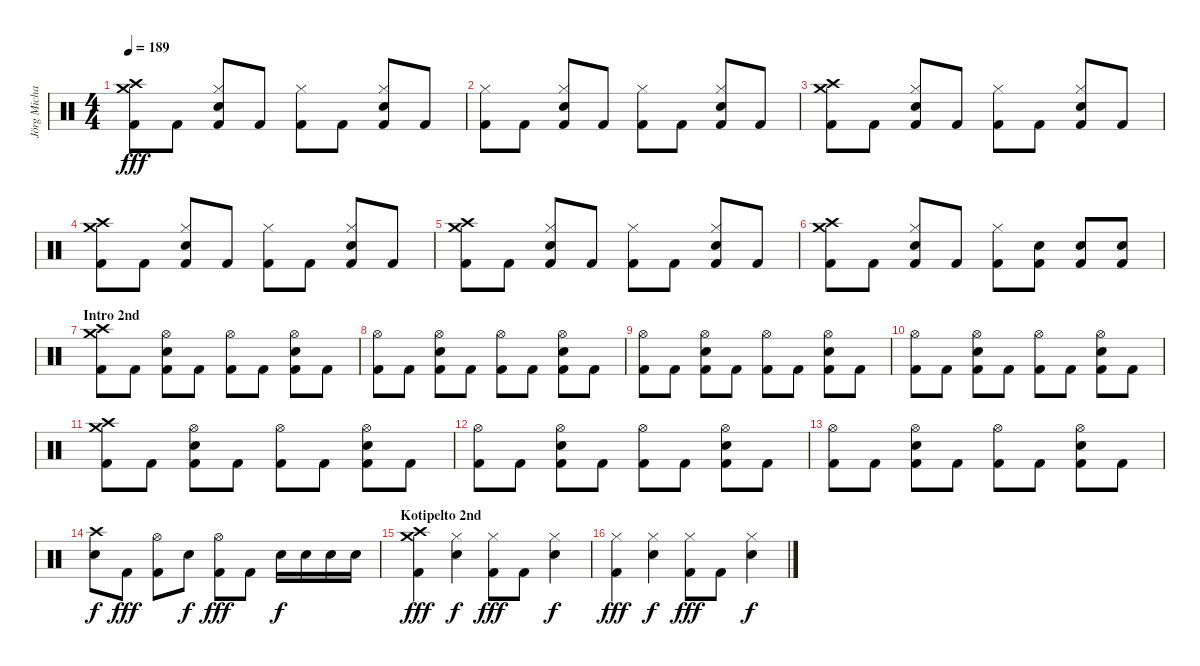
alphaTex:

\track ("Jörg Michael" "Jörg Micha") {instrument percussion}
\staff {score}
\articulation defaults
\ts (4 4)
\tempo 189
\clef neutral
\ks c
("Crash high (hit)" "Crash medium (hit)" "Kick (hit) 2").8{dy fff} "Kick (hit) 2".8 ("Hi-Hat (closed)" "Electric Snare (hit)" "Kick (hit) 2").8 "Kick (hit) 2".8 ("Hi-Hat (closed)" "Kick (hit) 2").8 "Kick (hit) 2".8 ("Hi-Hat (closed)" "Electric Snare (hit)" "Kick (hit) 2").8 "Kick (hit) 2".8 |
("Hi-Hat (closed)" "Kick (hit) 2").8 "Kick (hit) 2".8 ("Hi-Hat (closed)" "Electric Snare (hit)" "Kick (hit) 2").8 "Kick (hit) 2".8 ("Hi-Hat (closed)" "Kick (hit) 2").8 "Kick (hit) 2".8 ("Hi-Hat (closed)" "Electric Snare (hit)" "Kick (hit) 2").8 "Kick (hit) 2".8 |
("Crash high (hit)" "Crash medium (hit)" "Kick (hit) 2").8 "Kick (hit) 2".8 ("Hi-Hat (closed)" "Electric Snare (hit)" "Kick (hit) 2").8 "Kick (hit) 2".8 ("Hi-Hat (closed)" "Kick (hit) 2").8 "Kick (hit) 2".8 ("Hi-Hat (closed)" "Electric Snare (hit)" "Kick (hit) 2").8 "Kick (hit) 2".8 |
("Crash high (hit)" "Crash medium (hit)" "Kick (hit) 2").8 "Kick (hit) 2".8 ("Hi-Hat (closed)" "Electric Snare (hit)" "Kick (hit) 2").8 "Kick (hit) 2".8 ("Hi-Hat (closed)" "Kick (hit) 2").8 "Kick (hit) 2".8 ("Hi-Hat (closed)" "Electric Snare (hit)" "Kick (hit) 2").8 "Kick (hit) 2".8 |
("Crash high (hit)" "Crash medium (hit)" "Kick (hit) 2").8 "Kick (hit) 2".8 ("Hi-Hat (closed)" "Electric Snare (hit)" "Kick (hit) 2").8 "Kick (hit) 2".8 ("Hi-Hat (closed)" "Kick (hit) 2").8 "Kick (hit) 2".8 ("Hi-Hat (closed)" "Electric Snare (hit)" "Kick (hit) 2").8 "Kick (hit) 2".8 |
("Crash high (hit)" "Crash medium (hit)" "Kick (hit) 2").8 "Kick (hit) 2".8 ("Hi-Hat (closed)" "Electric Snare (hit)" "Kick (hit) 2").8 "Kick (hit) 2".8 ("Hi-Hat (closed)" "Kick (hit) 2").8 ("Electric Snare (hit)" "Kick (hit) 2").8 ("Electric Snare (hit)" "Kick (hit) 2").8 ("Electric Snare (hit)" "Kick (hit) 2").8 |
\section ("" "Intro 2nd")
("Crash high (hit)" "Crash medium (hit)" "Kick (hit) 2").8 "Kick (hit) 2".8 ("Hi-Hat (open)" "Electric Snare (hit)" "Kick (hit) 2").8 "Kick (hit) 2".8 ("Hi-Hat (open)" "Kick (hit) 2").8 "Kick (hit) 2".8 ("Hi-Hat (open)" "Electric Snare (hit)" "Kick (hit) 2").8 "Kick (hit) 2".8 |
("Hi-Hat (open)" "Kick (hit) 2").8 "Kick (hit) 2".8 ("Hi-Hat (open)" "Electric Snare (hit)" "Kick (hit) 2").8 "Kick (hit) 2".8 ("Hi-Hat (open)" "Kick (hit) 2").8 "Kick (hit) 2".8 ("Hi-Hat (open)" "Electric Snare (hit)" "Kick (hit) 2").8 "Kick (hit) 2".8 |
("Hi-Hat (open)" "Kick (hit) 2").8 "Kick (hit) 2".8 ("Hi-Hat (open)" "Electric Snare (hit)" "Kick (hit) 2").8 "Kick (hit) 2".8 ("Hi-Hat (open)" "Kick (hit) 2").8 "Kick (hit) 2".8 ("Hi-Hat (open)" "Electric Snare (hit)" "Kick (hit) 2").8 "Kick (hit) 2".8 |
("Hi-Hat (open)" "Kick (hit) 2").8 "Kick (hit) 2".8 ("Hi-Hat (open)" "Electric Snare (hit)" "Kick (hit) 2").8 "Kick (hit) 2".8 ("Hi-Hat (open)" "Kick (hit) 2").8 "Kick (hit) 2".8 ("Hi-Hat (open)" "Electric Snare (hit)" "Kick (hit) 2").8 "Kick (hit) 2".8 |
("Crash high (hit)" "Crash medium (hit)" "Kick (hit) 2").8 "Kick (hit) 2".8 ("Hi-Hat (open)" "Electric Snare (hit)" "Kick (hit) 2").8 "Kick (hit) 2".8 ("Hi-Hat (open)" "Kick (hit) 2").8 "Kick (hit) 2".8 ("Hi-Hat (open)" "Electric Snare (hit)" "Kick (hit) 2").8 "Kick (hit) 2".8 |
("Hi-Hat (open)" "Kick (hit) 2").8 "Kick (hit) 2".8 ("Hi-Hat (open)" "Electric Snare (hit)" "Kick (hit) 2").8 "Kick (hit) 2".8 ("Hi-Hat (open)" "Kick (hit) 2").8 "Kick (hit) 2".8 ("Hi-Hat (open)" "Electric Snare (hit)" "Kick (hit) 2").8 "Kick (hit) 2".8 |
("Hi-Hat (open)" "Kick (hit) 2").8 "Kick (hit) 2".8 ("Hi-Hat (open)" "Electric Snare (hit)" "Kick (hit) 2").8 "Kick (hit) 2".8 ("Hi-Hat (open)" "Kick (hit) 2").8 "Kick (hit) 2".8 ("Hi-Hat (open)" "Electric Snare (hit)" "Kick (hit) 2").8 "Kick (hit) 2".8 |
("Crash high (hit)" "Electric Snare (hit)").8{dy f} "Kick (hit) 2".8{dy fff} ("Hi-Hat (open)" "Kick (hit) 2").8 "Electric Snare (hit)".8{dy f} ("Hi-Hat (open)" "Kick (hit) 2").8{dy fff} "Kick (hit) 2".8 "Electric Snare (hit)".16{dy f} "Electric Snare (hit)".16 "Electric Snare (hit)".16 "Electric Snare (hit)".16 |
\section ("" "Kotipelto 2nd")
("Crash medium (hit)" "Crash high (hit)" "Kick (hit) 2").4{dy fff} ("Hi-Hat (closed)" "Electric Snare (hit)").4{dy f} ("Hi-Hat (closed)" "Kick (hit) 2").8{dy fff} "Kick (hit) 2".8 ("Hi-Hat (closed)" "Electric Snare (hit)").4{dy f} |
("Hi-Hat (closed)" "Kick (hit) 2").4{dy fff} ("Hi-Hat (closed)" "Electric Snare (hit)").4{dy f} ("Hi-Hat (closed)" "Kick (hit) 2").8{dy fff} "Kick (hit) 2".8 ("Hi-Hat (closed)" "Electric Snare (hit)").4{dy f}
